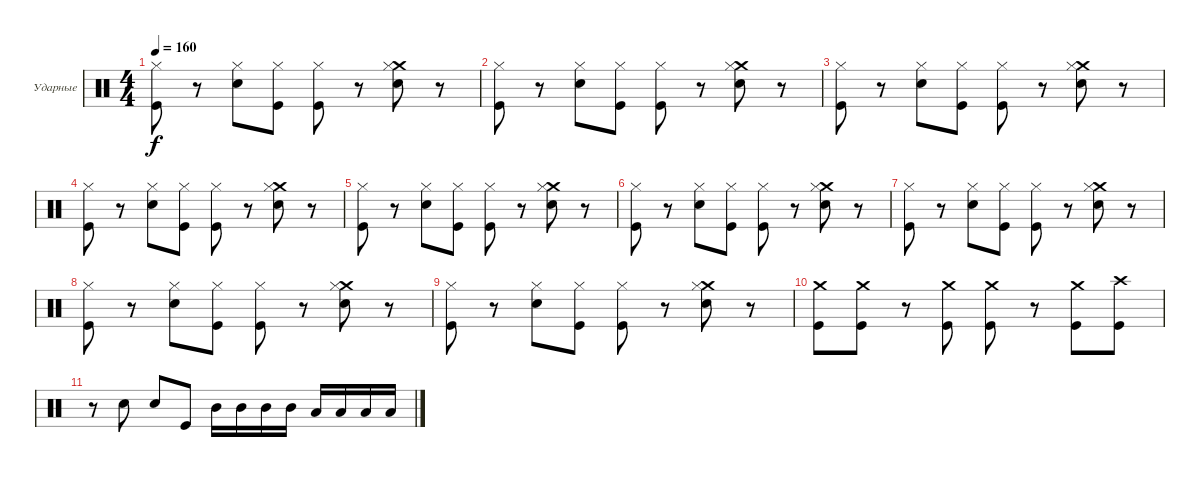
\bracketExtendMode groupsimilarinstruments
\firstSystemTrackNameOrientation horizontal
\otherSystemsTrackNameOrientation horizontal
\track ("Александр Львов" "Ударные") {instrument percussion}
\staff {score}
\articulation defaults
\ts (4 4)
\tempo 160
\clef neutral
\ks c
("Kick (hit)" "Hi-Hat (closed)").8{dy f} r.8 ("Snare (hit) 2" "Hi-Hat (closed)").8 ("Kick (hit)" "Hi-Hat (closed)").8 ("Kick (hit)" "Hi-Hat (closed)").8 r.8 ("Snare (hit) 2" "Crash medium (hit)" "Hi-Hat (closed)").8 r.8 |
("Kick (hit)" "Hi-Hat (closed)").8 r.8 ("Snare (hit) 2" "Hi-Hat (closed)").8 ("Kick (hit)" "Hi-Hat (closed)").8 ("Kick (hit)" "Hi-Hat (closed)").8 r.8 ("Snare (hit) 2" "Crash medium (hit)" "Hi-Hat (closed)").8 r.8 |
("Kick (hit)" "Hi-Hat (closed)").8 r.8 ("Snare (hit) 2" "Hi-Hat (closed)").8 ("Kick (hit)" "Hi-Hat (closed)").8 ("Kick (hit)" "Hi-Hat (closed)").8 r.8 ("Snare (hit) 2" "Crash medium (hit)" "Hi-Hat (closed)").8 r.8 |
("Kick (hit)" "Hi-Hat (closed)").8 r.8 ("Snare (hit) 2" "Hi-Hat (closed)").8 ("Kick (hit)" "Hi-Hat (closed)").8 ("Kick (hit)" "Hi-Hat (closed)").8 r.8 ("Snare (hit) 2" "Crash medium (hit)" "Hi-Hat (closed)").8 r.8 |
("Kick (hit)" "Hi-Hat (closed)").8 r.8 ("Snare (hit) 2" "Hi-Hat (closed)").8 ("Kick (hit)" "Hi-Hat (closed)").8 ("Kick (hit)" "Hi-Hat (closed)").8 r.8 ("Snare (hit) 2" "Crash medium (hit)" "Hi-Hat (closed)").8 r.8 |
("Kick (hit)" "Hi-Hat (closed)").8 r.8 ("Snare (hit) 2" "Hi-Hat (closed)").8 ("Kick (hit)" "Hi-Hat (closed)").8 ("Kick (hit)" "Hi-Hat (closed)").8 r.8 ("Snare (hit) 2" "Crash medium (hit)" "Hi-Hat (closed)").8 r.8 |
("Kick (hit)" "Hi-Hat (closed)").8 r.8 ("Snare (hit) 2" "Hi-Hat (closed)").8 ("Kick (hit)" "Hi-Hat (closed)").8 ("Kick (hit)" "Hi-Hat (closed)").8 r.8 ("Snare (hit) 2" "Crash medium (hit)" "Hi-Hat (closed)").8 r.8 |
("Kick (hit)" "Hi-Hat (closed)").8 r.8 ("Snare (hit) 2" "Hi-Hat (closed)").8 ("Kick (hit)" "Hi-Hat (closed)").8 ("Kick (hit)" "Hi-Hat (closed)").8 r.8 ("Snare (hit) 2" "Crash medium (hit)" "Hi-Hat (closed)").8 r.8 |
("Kick (hit)" "Hi-Hat (closed)").8 r.8 ("Snare (hit) 2" "Hi-Hat (closed)").8 ("Kick (hit)" "Hi-Hat (closed)").8 ("Kick (hit)" "Hi-Hat (closed)").8 r.8 ("Snare (hit) 2" "Crash medium (hit)" "Hi-Hat (closed)").8 r.8 |
("Kick (hit)" "Crash medium (hit)").8 ("Kick (hit)" "Crash medium (hit)").8 r.8 ("Kick (hit)" "Crash medium (hit)").8 ("Kick (hit)" "Crash medium (hit)").8 r.8 ("Kick (hit)" "Crash medium (hit)").8 ("Kick (hit)" "Crash high (hit)").8 |
r.8 "Snare (hit) 2".8 "Snare (hit) 2".8 "Kick (hit)".8 "Mid Tom (hit)".16 "Mid Tom (hit)".16 "Mid Tom (hit)".16 "Mid Tom (hit)".16 "Low Tom (hit)".16 "Low Tom (hit)".16 "Low Tom (hit)".16 "Low Tom (hit)".16
